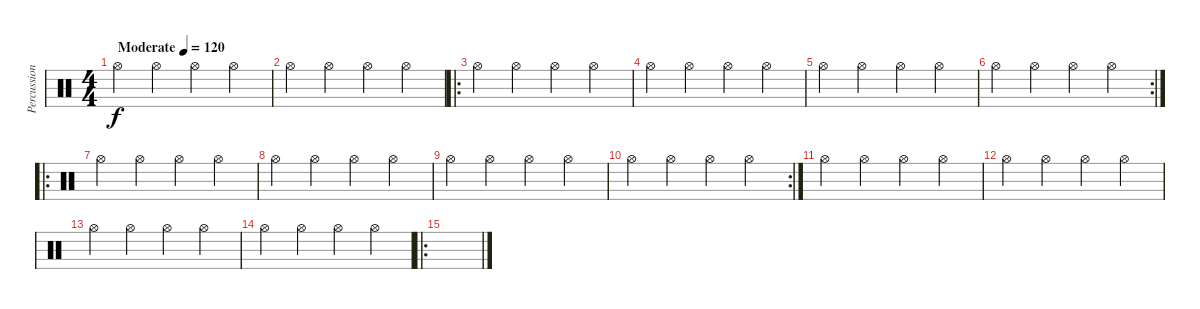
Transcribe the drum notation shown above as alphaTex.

\track ("Percussion" "Percussion") {instrument percussion}
\staff {score}
\articulation defaults
\ts (4 4)
\tempo (120 "Moderate")
\clef neutral
\ks c "Hi-Hat (open)".4{dy f} "Hi-Hat (open)".4 "Hi-Hat (open)".4 "Hi-Hat (open)".4
|
"Hi-Hat (open)".4 "Hi-Hat (open)".4 "Hi-Hat (open)".4 "Hi-Hat (open)".4 |
\ro "Hi-Hat (open)".4 "Hi-Hat (open)".4 "Hi-Hat (open)".4 "Hi-Hat (open)".4
|
"Hi-Hat (open)".4 "Hi-Hat (open)".4 "Hi-Hat (open)".4 "Hi-Hat (open)".4 |
"Hi-Hat (open)".4 "Hi-Hat (open)".4 "Hi-Hat (open)".4 "Hi-Hat (open)".4 |
\rc 2 "Hi-Hat (open)".4 "Hi-Hat (open)".4 "Hi-Hat (open)".4 "Hi-Hat (open)".4
|
\ro "Hi-Hat (open)".4 "Hi-Hat (open)".4 "Hi-Hat (open)".4 "Hi-Hat (open)".4
|
"Hi-Hat (open)".4 "Hi-Hat (open)".4 "Hi-Hat (open)".4 "Hi-Hat (open)".4 |
"Hi-Hat (open)".4 "Hi-Hat (open)".4 "Hi-Hat (open)".4 "Hi-Hat (open)".4 |
\rc 2 "Hi-Hat (open)".4 "Hi-Hat (open)".4 "Hi-Hat (open)".4 "Hi-Hat (open)".4
|
"Hi-Hat (open)".4 "Hi-Hat (open)".4 "Hi-Hat (open)".4 "Hi-Hat (open)".4 |
"Hi-Hat (open)".4 "Hi-Hat (open)".4 "Hi-Hat (open)".4 "Hi-Hat (open)".4 |
"Hi-Hat (open)".4 "Hi-Hat (open)".4 "Hi-Hat (open)".4 "Hi-Hat (open)".4 |
"Hi-Hat (open)".4 "Hi-Hat (open)".4 "Hi-Hat (open)".4 "Hi-Hat (open)".4 |
\ro
